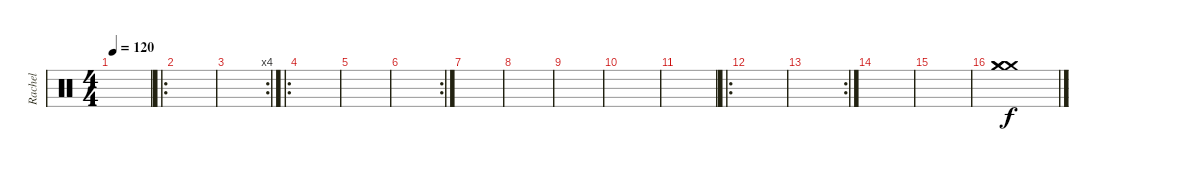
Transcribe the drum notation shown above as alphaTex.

\track ("Rachel" "Rachel") {instrument percussion}
\staff {score}
\articulation defaults
\ts (4 4)
\tempo 120
\clef neutral
\ks c
|
\ro
|
\rc 4
|
\ro
|
|
\rc 2
|
|
|
|
|
|
\ro
|
\rc 2
|
|
|
("Crash medium (hit)" "Crash medium (hit)" "Crash medium (hit)").1
